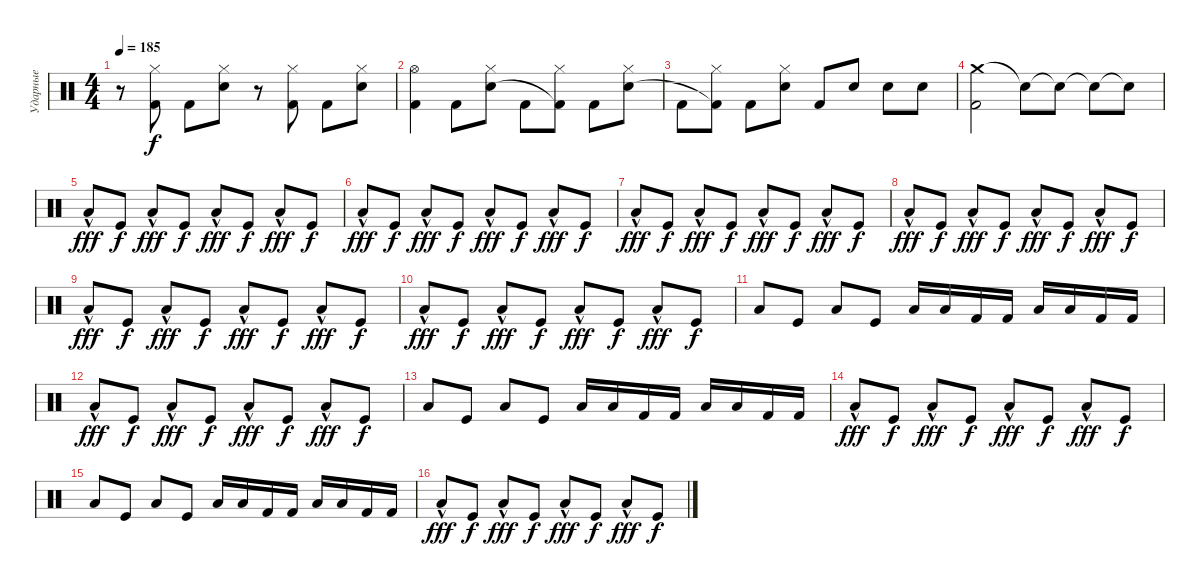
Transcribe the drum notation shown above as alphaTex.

\track ("Ударные" "Ударные") {instrument percussion}
\staff {score}
\articulation defaults
\ts (4 4)
\tempo 185
\clef neutral
\ks c
r.8{dy f} ("Hi-Hat (closed)" "Kick (hit) 2").8 "Kick (hit) 2".8 ("Hi-Hat (closed)" "Electric Snare (hit)").8 r.8 ("Hi-Hat (closed)" "Kick (hit) 2").8 "Kick (hit) 2".8 ("Hi-Hat (closed)" "Electric Snare (hit)").8 |
("Hi-Hat (open)" "Kick (hit) 2").4 "Kick (hit) 2".8 ("Hi-Hat (closed)" "Electric Snare (hit)").8 "Kick (hit) 2".8 ("Hi-Hat (closed)" "Kick (hit) 2"{t}).8 "Kick (hit) 2".8 ("Hi-Hat (closed)" "Electric Snare (hit)").8 |
"Kick (hit) 2".8 ("Hi-Hat (closed)" "Kick (hit) 2"{t}).8 "Kick (hit) 2".8 ("Hi-Hat (closed)" "Electric Snare (hit)").8 "Kick (hit) 2".8 "Electric Snare (hit)".8 "Electric Snare (hit)".8 "Electric Snare (hit)".8 |
("Crash medium (hit)" "Kick (hit) 2").2 "Snare (hit)"{t}.8 "Snare (hit)"{t}.8 "Snare (hit)"{t}.8 "Snare (hit)"{t}.8{volume 0} |
"Low Tom (hit)"{hac}.8{dy fff volume 13} "Kick (hit)".8{dy f} "Low Tom (hit)"{hac}.8{dy fff} "Kick (hit)".8{dy f} "Low Tom (hit)"{hac}.8{dy fff} "Kick (hit)".8{dy f} "Low Tom (hit)"{hac}.8{dy fff} "Kick (hit)".8{dy f} |
"Low Tom (hit)"{hac}.8{dy fff} "Kick (hit)".8{dy f} "Low Tom (hit)"{hac}.8{dy fff} "Kick (hit)".8{dy f} "Low Tom (hit)"{hac}.8{dy fff} "Kick (hit)".8{dy f} "Low Tom (hit)"{hac}.8{dy fff} "Kick (hit)".8{dy f} |
"Low Tom (hit)"{hac}.8{dy fff} "Kick (hit)".8{dy f} "Low Tom (hit)"{hac}.8{dy fff} "Kick (hit)".8{dy f} "Low Tom (hit)"{hac}.8{dy fff} "Kick (hit)".8{dy f} "Low Tom (hit)"{hac}.8{dy fff} "Kick (hit)".8{dy f} |
"Low Tom (hit)"{hac}.8{dy fff} "Kick (hit)".8{dy f} "Low Tom (hit)"{hac}.8{dy fff} "Kick (hit)".8{dy f} "Low Tom (hit)"{hac}.8{dy fff} "Kick (hit)".8{dy f} "Low Tom (hit)"{hac}.8{dy fff} "Kick (hit)".8{dy f} |
"Low Tom (hit)"{hac}.8{dy fff} "Kick (hit)".8{dy f} "Low Tom (hit)"{hac}.8{dy fff} "Kick (hit)".8{dy f} "Low Tom (hit)"{hac}.8{dy fff} "Kick (hit)".8{dy f} "Low Tom (hit)"{hac}.8{dy fff} "Kick (hit)".8{dy f} |
"Low Tom (hit)"{hac}.8{dy fff} "Kick (hit)".8{dy f} "Low Tom (hit)"{hac}.8{dy fff} "Kick (hit)".8{dy f} "Low Tom (hit)"{hac}.8{dy fff} "Kick (hit)".8{dy f} "Low Tom (hit)"{hac}.8{dy fff} "Kick (hit)".8{dy f} |
"Low Tom (hit)".8 "Kick (hit)".8 "Low Tom (hit)".8 "Kick (hit)".8 "Low Tom (hit)".16 "Low Tom (hit)".16 "Kick (hit) 2".16 "Kick (hit) 2".16 "Low Tom (hit)".16 "Low Tom (hit)".16 "Kick (hit) 2".16 "Kick (hit) 2".16 |
"Low Tom (hit)"{hac}.8{dy fff} "Kick (hit)".8{dy f} "Low Tom (hit)"{hac}.8{dy fff} "Kick (hit)".8{dy f} "Low Tom (hit)"{hac}.8{dy fff} "Kick (hit)".8{dy f} "Low Tom (hit)"{hac}.8{dy fff} "Kick (hit)".8{dy f} |
"Low Tom (hit)".8 "Kick (hit)".8 "Low Tom (hit)".8 "Kick (hit)".8 "Low Tom (hit)".16 "Low Tom (hit)".16 "Kick (hit) 2".16 "Kick (hit) 2".16 "Low Tom (hit)".16 "Low Tom (hit)".16 "Kick (hit) 2".16 "Kick (hit) 2".16 |
"Low Tom (hit)"{hac}.8{dy fff} "Kick (hit)".8{dy f} "Low Tom (hit)"{hac}.8{dy fff} "Kick (hit)".8{dy f} "Low Tom (hit)"{hac}.8{dy fff} "Kick (hit)".8{dy f} "Low Tom (hit)"{hac}.8{dy fff} "Kick (hit)".8{dy f} |
"Low Tom (hit)".8 "Kick (hit)".8 "Low Tom (hit)".8 "Kick (hit)".8 "Low Tom (hit)".16 "Low Tom (hit)".16 "Kick (hit) 2".16 "Kick (hit) 2".16 "Low Tom (hit)".16 "Low Tom (hit)".16 "Kick (hit) 2".16 "Kick (hit) 2".16 |
"Low Tom (hit)"{hac}.8{dy fff} "Kick (hit)".8{dy f} "Low Tom (hit)"{hac}.8{dy fff} "Kick (hit)".8{dy f} "Low Tom (hit)"{hac}.8{dy fff} "Kick (hit)".8{dy f} "Low Tom (hit)"{hac}.8{dy fff} "Kick (hit)".8{dy f}
